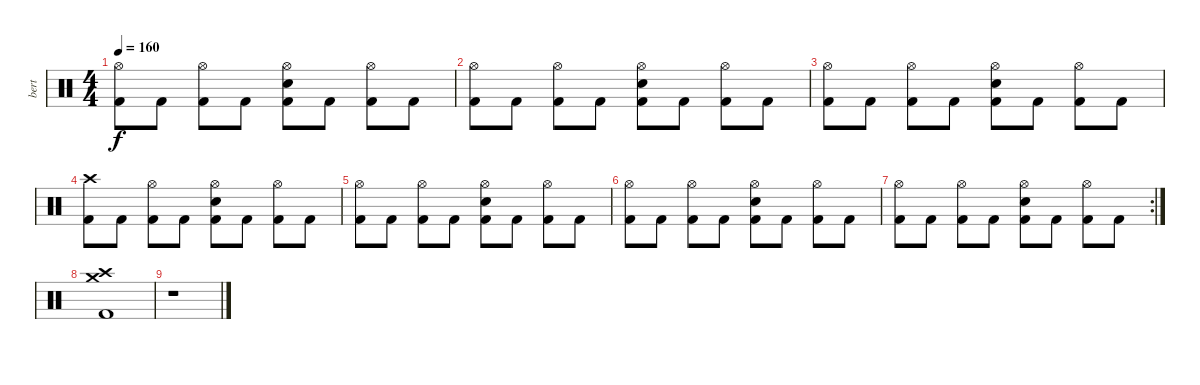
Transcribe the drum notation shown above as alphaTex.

\track ("bert" "bert") {instrument percussion}
\staff {score}
\articulation defaults
\ts (4 4)
\tempo 160
\clef neutral
\ks c
("Hi-Hat (open)" "Kick (hit) 2").8{dy f} "Kick (hit) 2".8 ("Hi-Hat (open)" "Kick (hit) 2").8 "Kick (hit) 2".8 ("Hi-Hat (open)" "Snare (hit) 2" "Kick (hit) 2").8 "Kick (hit) 2".8 ("Hi-Hat (open)" "Kick (hit) 2").8 "Kick (hit) 2".8 |
("Hi-Hat (open)" "Kick (hit) 2").8 "Kick (hit) 2".8 ("Hi-Hat (open)" "Kick (hit) 2").8 "Kick (hit) 2".8 ("Hi-Hat (open)" "Snare (hit) 2" "Kick (hit) 2").8 "Kick (hit) 2".8 ("Hi-Hat (open)" "Kick (hit) 2").8 "Kick (hit) 2".8 |
("Hi-Hat (open)" "Kick (hit) 2").8 "Kick (hit) 2".8 ("Hi-Hat (open)" "Kick (hit) 2").8 "Kick (hit) 2".8 ("Hi-Hat (open)" "Snare (hit) 2" "Kick (hit) 2").8 "Kick (hit) 2".8 ("Hi-Hat (open)" "Kick (hit) 2").8 "Kick (hit) 2".8 |
("Crash high (hit)" "Kick (hit) 2").8 "Kick (hit) 2".8 ("Hi-Hat (open)" "Kick (hit) 2").8 "Kick (hit) 2".8 ("Hi-Hat (open)" "Snare (hit) 2" "Kick (hit) 2").8 "Kick (hit) 2".8 ("Hi-Hat (open)" "Kick (hit) 2").8 "Kick (hit) 2".8 |
("Hi-Hat (open)" "Kick (hit) 2").8 "Kick (hit) 2".8 ("Hi-Hat (open)" "Kick (hit) 2").8 "Kick (hit) 2".8 ("Hi-Hat (open)" "Snare (hit) 2" "Kick (hit) 2").8 "Kick (hit) 2".8 ("Hi-Hat (open)" "Kick (hit) 2").8 "Kick (hit) 2".8 |
("Hi-Hat (open)" "Kick (hit) 2").8 "Kick (hit) 2".8 ("Hi-Hat (open)" "Kick (hit) 2").8 "Kick (hit) 2".8 ("Hi-Hat (open)" "Snare (hit) 2" "Kick (hit) 2").8 "Kick (hit) 2".8 ("Hi-Hat (open)" "Kick (hit) 2").8 "Kick (hit) 2".8 |
\rc 2
("Hi-Hat (open)" "Kick (hit) 2").8 "Kick (hit) 2".8 ("Hi-Hat (open)" "Kick (hit) 2").8 "Kick (hit) 2".8 ("Hi-Hat (open)" "Snare (hit) 2" "Kick (hit) 2").8 "Kick (hit) 2".8 ("Hi-Hat (open)" "Kick (hit) 2").8 "Kick (hit) 2".8 |
("Crash medium (hit)" "Crash high (hit)" "Kick (hit) 2").1 |
r.1
